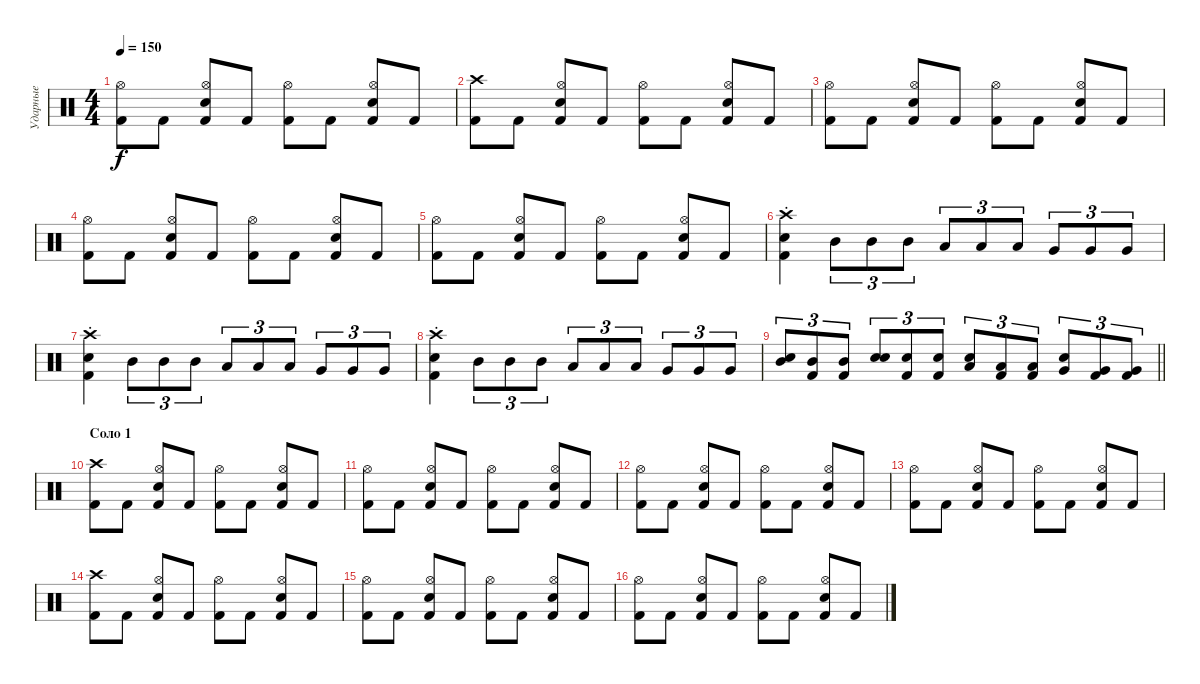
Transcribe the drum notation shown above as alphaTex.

\track ("Ударные" "Ударные") {instrument percussion}
\staff {score}
\articulation defaults
\ts (4 4)
\tempo 150
\clef neutral
\ks c
("Kick (hit) 2" "Hi-Hat (open)").8{dy f} "Kick (hit) 2".8 ("Snare (hit) 2" "Kick (hit) 2" "Hi-Hat (open)").8 "Kick (hit) 2".8 ("Kick (hit) 2" "Hi-Hat (open)").8 "Kick (hit) 2".8 ("Snare (hit) 2" "Kick (hit) 2" "Hi-Hat (open)").8 "Kick (hit) 2".8 |
("Kick (hit) 2" "Crash high (hit)").8 "Kick (hit) 2".8 ("Snare (hit) 2" "Kick (hit) 2" "Hi-Hat (open)").8 "Kick (hit) 2".8 ("Kick (hit) 2" "Hi-Hat (open)").8 "Kick (hit) 2".8 ("Snare (hit) 2" "Kick (hit) 2" "Hi-Hat (open)").8 "Kick (hit) 2".8 |
("Kick (hit) 2" "Hi-Hat (open)").8 "Kick (hit) 2".8 ("Snare (hit) 2" "Kick (hit) 2" "Hi-Hat (open)").8 "Kick (hit) 2".8 ("Kick (hit) 2" "Hi-Hat (open)").8 "Kick (hit) 2".8 ("Snare (hit) 2" "Kick (hit) 2" "Hi-Hat (open)").8 "Kick (hit) 2".8 |
("Kick (hit) 2" "Hi-Hat (open)").8 "Kick (hit) 2".8 ("Snare (hit) 2" "Kick (hit) 2" "Hi-Hat (open)").8 "Kick (hit) 2".8 ("Kick (hit) 2" "Hi-Hat (open)").8 "Kick (hit) 2".8 ("Snare (hit) 2" "Kick (hit) 2" "Hi-Hat (open)").8 "Kick (hit) 2".8 |
("Kick (hit) 2" "Hi-Hat (open)").8 "Kick (hit) 2".8 ("Snare (hit) 2" "Kick (hit) 2" "Hi-Hat (open)").8 "Kick (hit) 2".8 ("Kick (hit) 2" "Hi-Hat (open)").8 "Kick (hit) 2".8 ("Snare (hit) 2" "Kick (hit) 2" "Hi-Hat (open)").8 "Kick (hit) 2".8 |
("Kick (hit) 2"{st} "Snare (hit) 2"{st} "Crash high (hit)"{st}).4 "Mid Tom (hit)".8{tu (3 2)} "Mid Tom (hit)".8{tu (3 2)} "Mid Tom (hit)".8{tu (3 2)} "Low Tom (hit)".8{tu (3 2)} "Low Tom (hit)".8{tu (3 2)} "Low Tom (hit)".8{tu (3 2)} "Very Low Tom (hit)".8{tu (3 2)} "Very Low Tom (hit)".8{tu (3 2)} "Very Low Tom (hit)".8{tu (3 2)} |
("Kick (hit) 2"{st} "Snare (hit) 2"{st} "Crash high (hit)"{st}).4 "Mid Tom (hit)".8{tu (3 2)} "Mid Tom (hit)".8{tu (3 2)} "Mid Tom (hit)".8{tu (3 2)} "Low Tom (hit)".8{tu (3 2)} "Low Tom (hit)".8{tu (3 2)} "Low Tom (hit)".8{tu (3 2)} "Very Low Tom (hit)".8{tu (3 2)} "Very Low Tom (hit)".8{tu (3 2)} "Very Low Tom (hit)".8{tu (3 2)} |
("Kick (hit) 2"{st} "Snare (hit) 2"{st} "Crash high (hit)"{st}).4 "Mid Tom (hit)".8{tu (3 2)} "Mid Tom (hit)".8{tu (3 2)} "Mid Tom (hit)".8{tu (3 2)} "Low Tom (hit)".8{tu (3 2)} "Low Tom (hit)".8{tu (3 2)} "Low Tom (hit)".8{tu (3 2)} "Very Low Tom (hit)".8{tu (3 2)} "Very Low Tom (hit)".8{tu (3 2)} "Very Low Tom (hit)".8{tu (3 2)} |
\barLineRight lightlight
("Mid Tom (hit)" "Snare (hit) 2").8{tu (3 2)} ("Mid Tom (hit)" "Kick (hit) 2").8{tu (3 2)} ("Mid Tom (hit)" "Kick (hit) 2").8{tu (3 2)} ("Electric Snare (hit)" "Snare (hit) 2").8{tu (3 2)} ("Electric Snare (hit)" "Kick (hit) 2").8{tu (3 2)} ("Electric Snare (hit)" "Kick (hit) 2").8{tu (3 2)} ("Low Tom (hit)" "Snare (hit) 2").8{tu (3 2)} ("Low Tom (hit)" "Kick (hit) 2").8{tu (3 2)} ("Low Tom (hit)" "Kick (hit) 2").8{tu (3 2)} ("Very Low Tom (hit)" "Snare (hit) 2").8{tu (3 2)} ("Very Low Tom (hit)" "Kick (hit) 2").8{tu (3 2)} ("Very Low Tom (hit)" "Kick (hit) 2").8{tu (3 2)} |
\section ("" "Соло 1")
("Kick (hit) 2" "Crash high (hit)").8 "Kick (hit) 2".8 ("Snare (hit) 2" "Kick (hit) 2" "Hi-Hat (open)").8 "Kick (hit) 2".8 ("Kick (hit) 2" "Hi-Hat (open)").8 "Kick (hit) 2".8 ("Snare (hit) 2" "Kick (hit) 2" "Hi-Hat (open)").8 "Kick (hit) 2".8 |
("Kick (hit) 2" "Hi-Hat (open)").8 "Kick (hit) 2".8 ("Snare (hit) 2" "Kick (hit) 2" "Hi-Hat (open)").8 "Kick (hit) 2".8 ("Kick (hit) 2" "Hi-Hat (open)").8 "Kick (hit) 2".8 ("Snare (hit) 2" "Kick (hit) 2" "Hi-Hat (open)").8 "Kick (hit) 2".8 |
("Kick (hit) 2" "Hi-Hat (open)").8 "Kick (hit) 2".8 ("Snare (hit) 2" "Kick (hit) 2" "Hi-Hat (open)").8 "Kick (hit) 2".8 ("Kick (hit) 2" "Hi-Hat (open)").8 "Kick (hit) 2".8 ("Snare (hit) 2" "Kick (hit) 2" "Hi-Hat (open)").8 "Kick (hit) 2".8 |
("Kick (hit) 2" "Hi-Hat (open)").8 "Kick (hit) 2".8 ("Snare (hit) 2" "Kick (hit) 2" "Hi-Hat (open)").8 "Kick (hit) 2".8 ("Kick (hit) 2" "Hi-Hat (open)").8 "Kick (hit) 2".8 ("Snare (hit) 2" "Kick (hit) 2" "Hi-Hat (open)").8 "Kick (hit) 2".8 |
("Kick (hit) 2" "Crash high (hit)").8 "Kick (hit) 2".8 ("Snare (hit) 2" "Kick (hit) 2" "Hi-Hat (open)").8 "Kick (hit) 2".8 ("Kick (hit) 2" "Hi-Hat (open)").8 "Kick (hit) 2".8 ("Snare (hit) 2" "Kick (hit) 2" "Hi-Hat (open)").8 "Kick (hit) 2".8 |
("Kick (hit) 2" "Hi-Hat (open)").8 "Kick (hit) 2".8 ("Snare (hit) 2" "Kick (hit) 2" "Hi-Hat (open)").8 "Kick (hit) 2".8 ("Kick (hit) 2" "Hi-Hat (open)").8 "Kick (hit) 2".8 ("Snare (hit) 2" "Kick (hit) 2" "Hi-Hat (open)").8 "Kick (hit) 2".8 |
("Kick (hit) 2" "Hi-Hat (open)").8 "Kick (hit) 2".8 ("Snare (hit) 2" "Kick (hit) 2" "Hi-Hat (open)").8 "Kick (hit) 2".8 ("Kick (hit) 2" "Hi-Hat (open)").8 "Kick (hit) 2".8 ("Snare (hit) 2" "Kick (hit) 2" "Hi-Hat (open)").8 "Kick (hit) 2".8
